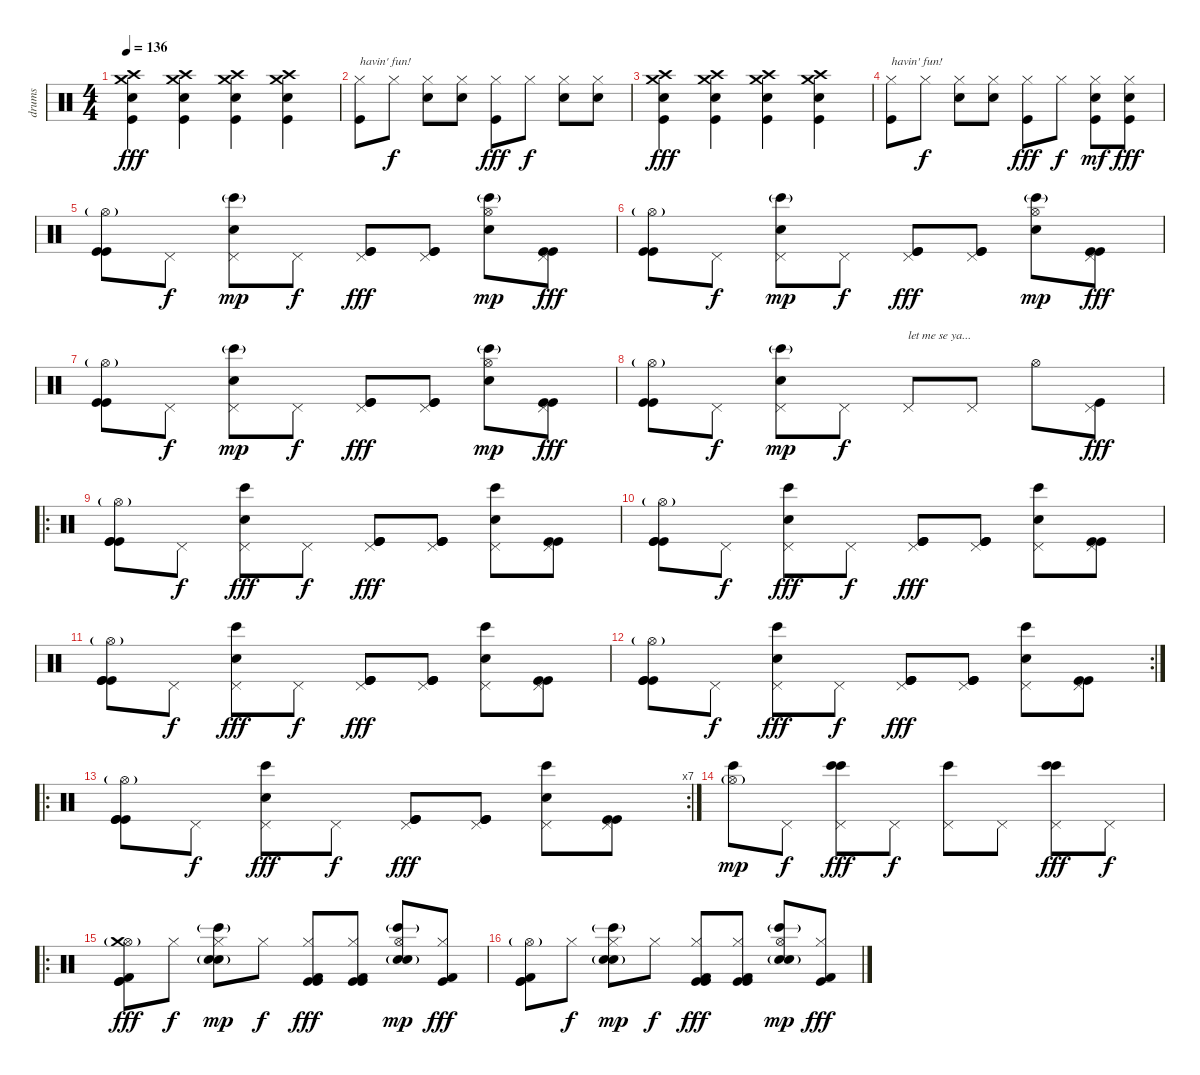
\track ("drums" "drums") {instrument percussion}
\staff {score}
\articulation defaults
\ts (4 4)
\tempo 136
\clef neutral
\ks c
("Crash high (hit)" "Crash medium (hit)" "Snare (hit) 2" "Kick (hit)").4{dy fff} ("Crash high (hit)" "Crash medium (hit)" "Snare (hit) 2" "Kick (hit)").4 ("Crash high (hit)" "Crash medium (hit)" "Snare (hit) 2" "Kick (hit)").4 ("Crash high (hit)" "Crash medium (hit)" "Snare (hit) 2" "Kick (hit)").4 |
("Hi-Hat (closed)" "Kick (hit)").8{txt "havin' fun!"} "Hi-Hat (closed)".8{dy f} ("Hi-Hat (closed)" "Snare (hit) 2").8 ("Hi-Hat (closed)" "Snare (hit) 2").8 ("Hi-Hat (closed)" "Kick (hit)").8{dy fff} "Hi-Hat (closed)".8{dy f} ("Hi-Hat (closed)" "Snare (hit) 2").8 ("Hi-Hat (closed)" "Snare (hit) 2").8 |
("Crash high (hit)" "Crash medium (hit)" "Snare (hit) 2" "Kick (hit)").4{dy fff} ("Crash high (hit)" "Crash medium (hit)" "Snare (hit) 2" "Kick (hit)").4 ("Crash high (hit)" "Crash medium (hit)" "Snare (hit) 2" "Kick (hit)").4 ("Crash high (hit)" "Crash medium (hit)" "Snare (hit) 2" "Kick (hit)").4 |
("Hi-Hat (closed)" "Kick (hit)").8{txt "havin' fun!"} "Hi-Hat (closed)".8{dy f} ("Hi-Hat (closed)" "Snare (hit) 2").8 ("Hi-Hat (closed)" "Snare (hit) 2").8 ("Hi-Hat (closed)" "Kick (hit)").8{dy fff} "Hi-Hat (closed)".8{dy f} ("Hi-Hat (closed)" "Snare (hit) 2" "Kick (hit)").8{dy mf} ("Hi-Hat (closed)" "Snare (hit) 2" "Kick (hit)").8{dy fff} |
("Hi-Hat (open)"{g} "Kick (hit)" "Kick (hit)").8 "Pedal Hi-Hat (hit)".8{dy f} ("Pedal Hi-Hat (hit)" "Bongo High (hit)"{g} "Snare (hit) 2").8{dy mp} "Pedal Hi-Hat (hit)".8{dy f} ("Pedal Hi-Hat (hit)" "Kick (hit)" "Kick (hit)").8{dy fff} ("Pedal Hi-Hat (hit)" "Kick (hit)" "Kick (hit)").8 ("Hi-Hat (open)" "Bongo High (hit)"{g} "Snare (hit) 2").8{dy mp} ("Pedal Hi-Hat (hit)" "Kick (hit)" "Kick (hit)").8{dy fff} |
("Hi-Hat (open)"{g} "Kick (hit)" "Kick (hit)").8 "Pedal Hi-Hat (hit)".8{dy f} ("Pedal Hi-Hat (hit)" "Bongo High (hit)"{g} "Snare (hit) 2").8{dy mp} "Pedal Hi-Hat (hit)".8{dy f} ("Pedal Hi-Hat (hit)" "Kick (hit)" "Kick (hit)").8{dy fff} ("Pedal Hi-Hat (hit)" "Kick (hit)" "Kick (hit)").8 ("Hi-Hat (open)" "Bongo High (hit)"{g} "Snare (hit) 2").8{dy mp} ("Pedal Hi-Hat (hit)" "Kick (hit)" "Kick (hit)").8{dy fff} |
("Hi-Hat (open)"{g} "Kick (hit)" "Kick (hit)").8 "Pedal Hi-Hat (hit)".8{dy f} ("Pedal Hi-Hat (hit)" "Bongo High (hit)"{g} "Snare (hit) 2").8{dy mp} "Pedal Hi-Hat (hit)".8{dy f} ("Pedal Hi-Hat (hit)" "Kick (hit)" "Kick (hit)").8{dy fff} ("Pedal Hi-Hat (hit)" "Kick (hit)" "Kick (hit)").8 ("Hi-Hat (open)" "Bongo High (hit)"{g} "Snare (hit) 2").8{dy mp} ("Pedal Hi-Hat (hit)" "Kick (hit)" "Kick (hit)").8{dy fff} |
("Hi-Hat (open)"{g} "Kick (hit)" "Kick (hit)").8 "Pedal Hi-Hat (hit)".8{dy f} ("Pedal Hi-Hat (hit)" "Bongo High (hit)"{g} "Snare (hit) 2").8{dy mp} "Pedal Hi-Hat (hit)".8{dy f} "Pedal Hi-Hat (hit)".8{txt "let me se ya..."} "Pedal Hi-Hat (hit)".8 "Hi-Hat (open)".8 ("Pedal Hi-Hat (hit)" "Kick (hit)").8{dy fff} |
\ro
("Hi-Hat (open)"{g} "Kick (hit)" "Kick (hit)" "Kick (hit)").8 "Pedal Hi-Hat (hit)".8{dy f} ("Pedal Hi-Hat (hit)" "Bongo High (hit)" "Snare (hit) 2").8{dy fff} "Pedal Hi-Hat (hit)".8{dy f} ("Pedal Hi-Hat (hit)" "Kick (hit)" "Kick (hit)" "Kick (hit)").8{dy fff} ("Pedal Hi-Hat (hit)" "Kick (hit)" "Kick (hit)" "Kick (hit)").8 ("Pedal Hi-Hat (hit)" "Bongo High (hit)" "Snare (hit) 2").8 ("Pedal Hi-Hat (hit)" "Kick (hit)" "Kick (hit)").8 |
("Hi-Hat (open)"{g} "Kick (hit)" "Kick (hit)" "Kick (hit)").8 "Pedal Hi-Hat (hit)".8{dy f} ("Pedal Hi-Hat (hit)" "Bongo High (hit)" "Snare (hit) 2").8{dy fff} "Pedal Hi-Hat (hit)".8{dy f} ("Pedal Hi-Hat (hit)" "Kick (hit)" "Kick (hit)" "Kick (hit)").8{dy fff} ("Pedal Hi-Hat (hit)" "Kick (hit)" "Kick (hit)" "Kick (hit)").8 ("Pedal Hi-Hat (hit)" "Bongo High (hit)" "Snare (hit) 2").8 ("Pedal Hi-Hat (hit)" "Kick (hit)" "Kick (hit)").8 |
("Hi-Hat (open)"{g} "Kick (hit)" "Kick (hit)" "Kick (hit)").8 "Pedal Hi-Hat (hit)".8{dy f} ("Pedal Hi-Hat (hit)" "Bongo High (hit)" "Snare (hit) 2").8{dy fff} "Pedal Hi-Hat (hit)".8{dy f} ("Pedal Hi-Hat (hit)" "Kick (hit)" "Kick (hit)" "Kick (hit)").8{dy fff} ("Pedal Hi-Hat (hit)" "Kick (hit)" "Kick (hit)" "Kick (hit)").8 ("Pedal Hi-Hat (hit)" "Bongo High (hit)" "Snare (hit) 2").8 ("Pedal Hi-Hat (hit)" "Kick (hit)" "Kick (hit)").8 |
\rc 2
("Hi-Hat (open)"{g} "Kick (hit)" "Kick (hit)" "Kick (hit)").8 "Pedal Hi-Hat (hit)".8{dy f} ("Pedal Hi-Hat (hit)" "Bongo High (hit)" "Snare (hit) 2").8{dy fff} "Pedal Hi-Hat (hit)".8{dy f} ("Pedal Hi-Hat (hit)" "Kick (hit)" "Kick (hit)" "Kick (hit)").8{dy fff} ("Pedal Hi-Hat (hit)" "Kick (hit)" "Kick (hit)" "Kick (hit)").8 ("Pedal Hi-Hat (hit)" "Bongo High (hit)" "Snare (hit) 2").8 ("Pedal Hi-Hat (hit)" "Kick (hit)" "Kick (hit)").8 |
\ro
\rc 7
("Hi-Hat (open)"{g} "Kick (hit)" "Kick (hit)" "Kick (hit)").8 "Pedal Hi-Hat (hit)".8{dy f} ("Pedal Hi-Hat (hit)" "Bongo High (hit)" "Snare (hit) 2").8{dy fff} "Pedal Hi-Hat (hit)".8{dy f} ("Pedal Hi-Hat (hit)" "Kick (hit)" "Kick (hit)" "Kick (hit)").8{dy fff} ("Pedal Hi-Hat (hit)" "Kick (hit)" "Kick (hit)" "Kick (hit)").8 ("Pedal Hi-Hat (hit)" "Bongo High (hit)" "Snare (hit) 2").8 ("Pedal Hi-Hat (hit)" "Kick (hit)" "Kick (hit)").8 |
("Hi-Hat (open)"{g} "Bongo High (hit)").8{dy mp} "Pedal Hi-Hat (hit)".8{dy f} ("Pedal Hi-Hat (hit)" "Bongo High (hit)" "Bongo High (hit)").8{dy fff} "Pedal Hi-Hat (hit)".8{dy f} ("Pedal Hi-Hat (hit)" "Bongo High (hit)").8 "Pedal Hi-Hat (hit)".8 ("Pedal Hi-Hat (hit)" "Bongo High (hit)" "Bongo High (hit)").8{dy fff} "Pedal Hi-Hat (hit)".8{dy f} |
\ro
("Hi-Hat (open)"{g} "Crash medium (hit)"{g} "Kick (hit)" "Kick (hit)" "Kick (hit) 2").8{dy fff} "Hi-Hat (closed)".8{dy f} ("Hi-Hat (closed)" "Bongo High (hit)"{g} "Snare (hit) 2" "Electric Snare (hit)"{g}).8{dy mp} "Hi-Hat (closed)".8{dy f} ("Hi-Hat (closed)" "Kick (hit)" "Kick (hit)" "Kick (hit) 2").8{dy fff} ("Hi-Hat (closed)" "Kick (hit)" "Kick (hit)" "Kick (hit) 2").8 ("Hi-Hat (open)" "Bongo High (hit)"{g} "Snare (hit) 2" "Electric Snare (hit)"{g}).8{dy mp} ("Hi-Hat (closed)" "Kick (hit)" "Kick (hit) 2").8{dy fff} |
("Hi-Hat (open)"{g} "Kick (hit)" "Kick (hit)" "Kick (hit) 2").8 "Hi-Hat (closed)".8{dy f} ("Hi-Hat (closed)" "Bongo High (hit)"{g} "Snare (hit) 2" "Electric Snare (hit)"{g}).8{dy mp} "Hi-Hat (closed)".8{dy f} ("Hi-Hat (closed)" "Kick (hit)" "Kick (hit)" "Kick (hit) 2").8{dy fff} ("Hi-Hat (closed)" "Kick (hit)" "Kick (hit)" "Kick (hit) 2").8 ("Hi-Hat (open)" "Bongo High (hit)"{g} "Snare (hit) 2" "Electric Snare (hit)"{g}).8{dy mp} ("Hi-Hat (closed)" "Kick (hit)" "Kick (hit) 2").8{dy fff}
